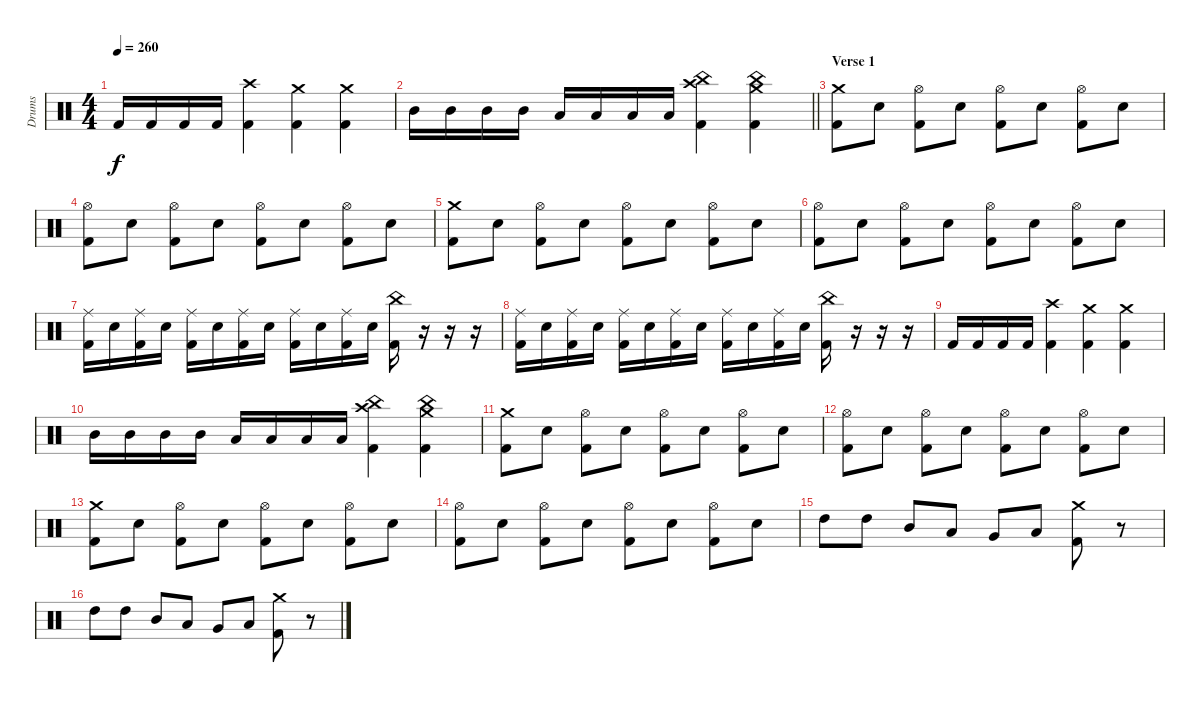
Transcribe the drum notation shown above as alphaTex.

\track ("Drums" "Drums") {instrument percussion}
\staff {score}
\articulation defaults
\ts (4 4)
\tempo 260
\clef neutral
\ks c "Kick (hit) 2".16{dy f} "Kick (hit) 2".16 "Kick (hit) 2".16 "Kick (hit) 2".16
("Crash high (hit)" "Kick (hit) 2").4 ("Crash medium (hit)" "Kick (hit) 2").4 ("Crash medium (hit)" "Kick (hit) 2").4 |
\barLineRight lightlight "Mid Tom (hit)".16 "Mid Tom (hit)".16 "Mid Tom (hit)".16 "Mid Tom (hit)".16 "Low Tom (hit)".16 "Low Tom (hit)".16 "Low Tom (hit)".16 "Low Tom (hit)".16
("China (hit)" "Crash high (hit)" "Kick (hit) 2").4 ("China (hit)" "Crash medium (hit)" "Kick (hit) 2").4 |
\section ("" "Verse 1")
("Crash medium (hit)" "Kick (hit) 2").8 "Electric Snare (hit)".8 ("Hi-Hat (open)" "Kick (hit) 2").8 "Electric Snare (hit)".8 ("Hi-Hat (open)" "Kick (hit) 2").8 "Electric Snare (hit)".8 ("Hi-Hat (open)" "Kick (hit) 2").8 "Electric Snare (hit)".8 |
("Hi-Hat (open)" "Kick (hit) 2").8 "Electric Snare (hit)".8 ("Hi-Hat (open)" "Kick (hit) 2").8 "Electric Snare (hit)".8 ("Hi-Hat (open)" "Kick (hit) 2").8 "Electric Snare (hit)".8 ("Hi-Hat (open)" "Kick (hit) 2").8 "Electric Snare (hit)".8 |
("Crash medium (hit)" "Kick (hit) 2").8 "Electric Snare (hit)".8 ("Hi-Hat (open)" "Kick (hit) 2").8 "Electric Snare (hit)".8 ("Hi-Hat (open)" "Kick (hit) 2").8 "Electric Snare (hit)".8 ("Hi-Hat (open)" "Kick (hit) 2").8 "Electric Snare (hit)".8 |
("Hi-Hat (open)" "Kick (hit) 2").8 "Electric Snare (hit)".8 ("Hi-Hat (open)" "Kick (hit) 2").8 "Electric Snare (hit)".8 ("Hi-Hat (open)" "Kick (hit) 2").8 "Electric Snare (hit)".8 ("Hi-Hat (open)" "Kick (hit) 2").8 "Electric Snare (hit)".8 |
("Ride (middle)" "Kick (hit) 2").16 "Electric Snare (hit)".16 ("Ride (middle)" "Kick (hit) 2").16 "Electric Snare (hit)".16 ("Ride (middle)" "Kick (hit) 2").16 "Electric Snare (hit)".16 ("Ride (middle)" "Kick (hit) 2").16 "Electric Snare (hit)".16 ("Ride (middle)" "Kick (hit) 2").16 "Electric Snare (hit)".16 ("Ride (middle)" "Kick (hit) 2").16 "Electric Snare (hit)".16 ("China (hit)" "Kick (hit) 2").16 r.16 r.16 r.16 |
("Ride (middle)" "Kick (hit) 2").16 "Electric Snare (hit)".16 ("Ride (middle)" "Kick (hit) 2").16 "Electric Snare (hit)".16 ("Ride (middle)" "Kick (hit) 2").16 "Electric Snare (hit)".16 ("Ride (middle)" "Kick (hit) 2").16 "Electric Snare (hit)".16 ("Ride (middle)" "Kick (hit) 2").16 "Electric Snare (hit)".16 ("Ride (middle)" "Kick (hit) 2").16 "Electric Snare (hit)".16 ("China (hit)" "Kick (hit) 2").16 r.16 r.16 r.16 |
"Kick (hit) 2".16 "Kick (hit) 2".16 "Kick (hit) 2".16 "Kick (hit) 2".16 ("Crash high (hit)" "Kick (hit) 2").4 ("Crash medium (hit)" "Kick (hit) 2").4 ("Crash medium (hit)" "Kick (hit) 2").4 |
"Mid Tom (hit)".16 "Mid Tom (hit)".16 "Mid Tom (hit)".16 "Mid Tom (hit)".16 "Low Tom (hit)".16 "Low Tom (hit)".16 "Low Tom (hit)".16 "Low Tom (hit)".16 ("China (hit)" "Crash high (hit)" "Kick (hit) 2").4 ("China (hit)" "Crash medium (hit)" "Kick (hit) 2").4 |
("Crash medium (hit)" "Kick (hit) 2").8 "Electric Snare (hit)".8 ("Hi-Hat (open)" "Kick (hit) 2").8 "Electric Snare (hit)".8 ("Hi-Hat (open)" "Kick (hit) 2").8 "Electric Snare (hit)".8 ("Hi-Hat (open)" "Kick (hit) 2").8 "Electric Snare (hit)".8 |
("Hi-Hat (open)" "Kick (hit) 2").8 "Electric Snare (hit)".8 ("Hi-Hat (open)" "Kick (hit) 2").8 "Electric Snare (hit)".8 ("Hi-Hat (open)" "Kick (hit) 2").8 "Electric Snare (hit)".8 ("Hi-Hat (open)" "Kick (hit) 2").8 "Electric Snare (hit)".8 |
("Crash medium (hit)" "Kick (hit) 2").8 "Electric Snare (hit)".8 ("Hi-Hat (open)" "Kick (hit) 2").8 "Electric Snare (hit)".8 ("Hi-Hat (open)" "Kick (hit) 2").8 "Electric Snare (hit)".8 ("Hi-Hat (open)" "Kick (hit) 2").8 "Electric Snare (hit)".8 |
("Hi-Hat (open)" "Kick (hit) 2").8 "Electric Snare (hit)".8 ("Hi-Hat (open)" "Kick (hit) 2").8 "Electric Snare (hit)".8 ("Hi-Hat (open)" "Kick (hit) 2").8 "Electric Snare (hit)".8 ("Hi-Hat (open)" "Kick (hit) 2").8 "Electric Snare (hit)".8 |
"High Tom (hit)".8 "High Tom (hit)".8 "Mid Tom (hit)".8 "Low Tom (hit)".8 "Very Low Tom (hit)".8 "Low Floor Tom (hit)".8 ("Crash medium (hit)" "Kick (hit) 2").8 r.8 |
"High Tom (hit)".8 "High Tom (hit)".8 "Mid Tom (hit)".8 "Low Tom (hit)".8 "Very Low Tom (hit)".8 "Low Floor Tom (hit)".8 ("Crash medium (hit)" "Kick (hit) 2").8 r.8
